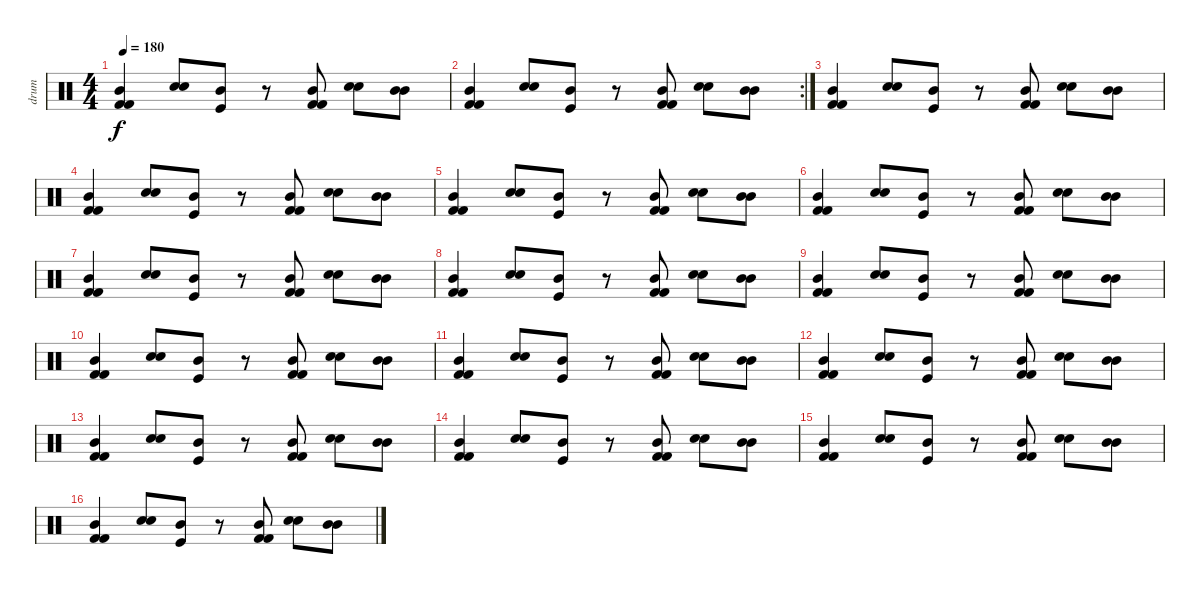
\track ("drum" "drum") {instrument percussion}
\staff {score}
\articulation defaults
\ts (4 4)
\tempo 180
\clef neutral
\ks c
("Kick (hit) 2" "Mid Tom (hit)" "Kick (hit) 2").4{dy f} ("Electric Snare (hit)" "Electric Snare (hit)").8 ("Kick (hit)" "Mid Tom (hit)").8 r.8 ("Mid Tom (hit)" "Kick (hit) 2" "Kick (hit) 2").8 ("Electric Snare (hit)" "Electric Snare (hit)").8 ("Mid Tom (hit)" "Mid Tom (hit)").8 |
\rc 2
("Kick (hit) 2" "Mid Tom (hit)" "Kick (hit) 2").4 ("Electric Snare (hit)" "Electric Snare (hit)").8 ("Kick (hit)" "Mid Tom (hit)").8 r.8 ("Mid Tom (hit)" "Kick (hit) 2" "Kick (hit) 2").8 ("Electric Snare (hit)" "Electric Snare (hit)").8 ("Mid Tom (hit)" "Mid Tom (hit)").8 |
("Kick (hit) 2" "Mid Tom (hit)" "Kick (hit) 2").4 ("Electric Snare (hit)" "Electric Snare (hit)").8 ("Kick (hit)" "Mid Tom (hit)").8 r.8 ("Mid Tom (hit)" "Kick (hit) 2" "Kick (hit) 2").8 ("Electric Snare (hit)" "Electric Snare (hit)").8 ("Mid Tom (hit)" "Mid Tom (hit)").8 |
("Kick (hit) 2" "Mid Tom (hit)" "Kick (hit) 2").4 ("Electric Snare (hit)" "Electric Snare (hit)").8 ("Kick (hit)" "Mid Tom (hit)").8 r.8 ("Mid Tom (hit)" "Kick (hit) 2" "Kick (hit) 2").8 ("Electric Snare (hit)" "Electric Snare (hit)").8 ("Mid Tom (hit)" "Mid Tom (hit)").8 |
("Kick (hit) 2" "Mid Tom (hit)" "Kick (hit) 2").4 ("Electric Snare (hit)" "Electric Snare (hit)").8 ("Kick (hit)" "Mid Tom (hit)").8 r.8 ("Mid Tom (hit)" "Kick (hit) 2" "Kick (hit) 2").8 ("Electric Snare (hit)" "Electric Snare (hit)").8 ("Mid Tom (hit)" "Mid Tom (hit)").8 |
("Kick (hit) 2" "Mid Tom (hit)" "Kick (hit) 2").4 ("Electric Snare (hit)" "Electric Snare (hit)").8 ("Kick (hit)" "Mid Tom (hit)").8 r.8 ("Mid Tom (hit)" "Kick (hit) 2" "Kick (hit) 2").8 ("Electric Snare (hit)" "Electric Snare (hit)").8 ("Mid Tom (hit)" "Mid Tom (hit)").8 |
("Kick (hit) 2" "Mid Tom (hit)" "Kick (hit) 2").4 ("Electric Snare (hit)" "Electric Snare (hit)").8 ("Kick (hit)" "Mid Tom (hit)").8 r.8 ("Mid Tom (hit)" "Kick (hit) 2" "Kick (hit) 2").8 ("Electric Snare (hit)" "Electric Snare (hit)").8 ("Mid Tom (hit)" "Mid Tom (hit)").8 |
("Kick (hit) 2" "Mid Tom (hit)" "Kick (hit) 2").4 ("Electric Snare (hit)" "Electric Snare (hit)").8 ("Kick (hit)" "Mid Tom (hit)").8 r.8 ("Mid Tom (hit)" "Kick (hit) 2" "Kick (hit) 2").8 ("Electric Snare (hit)" "Electric Snare (hit)").8 ("Mid Tom (hit)" "Mid Tom (hit)").8 |
("Kick (hit) 2" "Mid Tom (hit)" "Kick (hit) 2").4 ("Electric Snare (hit)" "Electric Snare (hit)").8 ("Kick (hit)" "Mid Tom (hit)").8 r.8 ("Mid Tom (hit)" "Kick (hit) 2" "Kick (hit) 2").8 ("Electric Snare (hit)" "Electric Snare (hit)").8 ("Mid Tom (hit)" "Mid Tom (hit)").8 |
("Kick (hit) 2" "Mid Tom (hit)" "Kick (hit) 2").4 ("Electric Snare (hit)" "Electric Snare (hit)").8 ("Kick (hit)" "Mid Tom (hit)").8 r.8 ("Mid Tom (hit)" "Kick (hit) 2" "Kick (hit) 2").8 ("Electric Snare (hit)" "Electric Snare (hit)").8 ("Mid Tom (hit)" "Mid Tom (hit)").8 |
("Kick (hit) 2" "Mid Tom (hit)" "Kick (hit) 2").4 ("Electric Snare (hit)" "Electric Snare (hit)").8 ("Kick (hit)" "Mid Tom (hit)").8 r.8 ("Mid Tom (hit)" "Kick (hit) 2" "Kick (hit) 2").8 ("Electric Snare (hit)" "Electric Snare (hit)").8 ("Mid Tom (hit)" "Mid Tom (hit)").8 |
("Kick (hit) 2" "Mid Tom (hit)" "Kick (hit) 2").4 ("Electric Snare (hit)" "Electric Snare (hit)").8 ("Kick (hit)" "Mid Tom (hit)").8 r.8 ("Mid Tom (hit)" "Kick (hit) 2" "Kick (hit) 2").8 ("Electric Snare (hit)" "Electric Snare (hit)").8 ("Mid Tom (hit)" "Mid Tom (hit)").8 |
("Kick (hit) 2" "Mid Tom (hit)" "Kick (hit) 2").4 ("Electric Snare (hit)" "Electric Snare (hit)").8 ("Kick (hit)" "Mid Tom (hit)").8 r.8 ("Mid Tom (hit)" "Kick (hit) 2" "Kick (hit) 2").8 ("Electric Snare (hit)" "Electric Snare (hit)").8 ("Mid Tom (hit)" "Mid Tom (hit)").8 |
("Kick (hit) 2" "Mid Tom (hit)" "Kick (hit) 2").4 ("Electric Snare (hit)" "Electric Snare (hit)").8 ("Kick (hit)" "Mid Tom (hit)").8 r.8 ("Mid Tom (hit)" "Kick (hit) 2" "Kick (hit) 2").8 ("Electric Snare (hit)" "Electric Snare (hit)").8 ("Mid Tom (hit)" "Mid Tom (hit)").8 |
("Kick (hit) 2" "Mid Tom (hit)" "Kick (hit) 2").4 ("Electric Snare (hit)" "Electric Snare (hit)").8 ("Kick (hit)" "Mid Tom (hit)").8 r.8 ("Mid Tom (hit)" "Kick (hit) 2" "Kick (hit) 2").8 ("Electric Snare (hit)" "Electric Snare (hit)").8 ("Mid Tom (hit)" "Mid Tom (hit)").8 |
("Kick (hit) 2" "Mid Tom (hit)" "Kick (hit) 2").4 ("Electric Snare (hit)" "Electric Snare (hit)").8 ("Kick (hit)" "Mid Tom (hit)").8 r.8 ("Mid Tom (hit)" "Kick (hit) 2" "Kick (hit) 2").8 ("Electric Snare (hit)" "Electric Snare (hit)").8 ("Mid Tom (hit)" "Mid Tom (hit)").8
